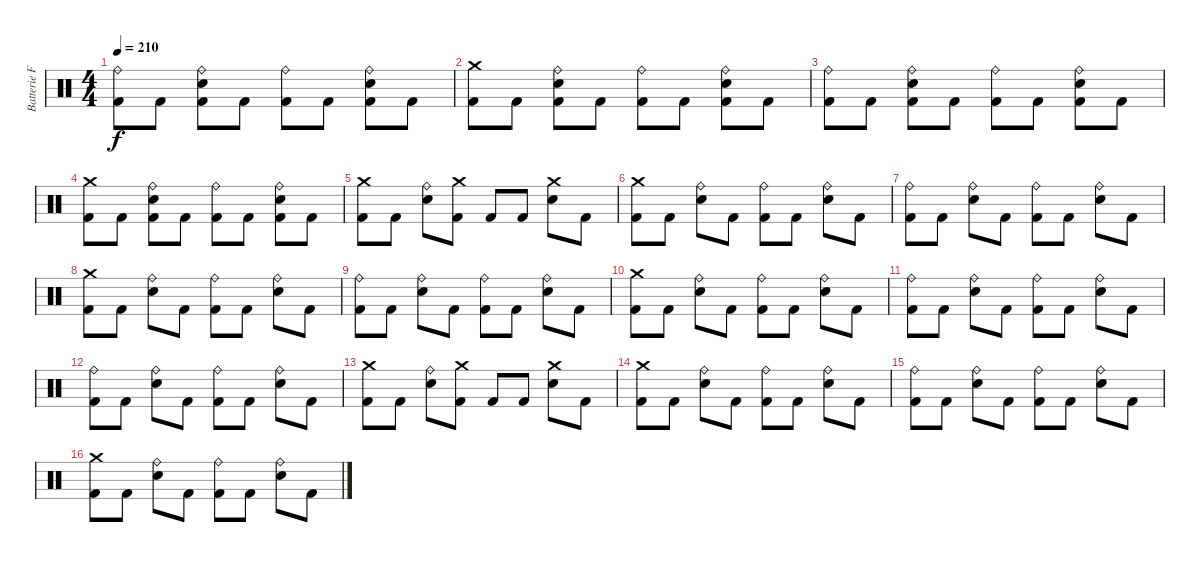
\track ("Batterie Franck" "Batterie F") {instrument percussion}
\staff {score}
\articulation defaults
\ts (4 4)
\tempo 210
\clef neutral
\ks c
("Ride (bell)" "Kick (hit) 2").8{dy f} "Kick (hit) 2".8 ("Ride (bell)" "Snare (hit) 2" "Kick (hit) 2").8 "Kick (hit) 2".8 ("Ride (bell)" "Kick (hit) 2").8 "Kick (hit) 2".8 ("Ride (bell)" "Snare (hit) 2" "Kick (hit) 2").8 "Kick (hit) 2".8 |
("Crash medium (hit)" "Kick (hit) 2").8 "Kick (hit) 2".8 ("Ride (bell)" "Snare (hit) 2" "Kick (hit) 2").8 "Kick (hit) 2".8 ("Ride (bell)" "Kick (hit) 2").8 "Kick (hit) 2".8 ("Ride (bell)" "Snare (hit) 2" "Kick (hit) 2").8 "Kick (hit) 2".8 |
("Ride (bell)" "Kick (hit) 2").8 "Kick (hit) 2".8 ("Ride (bell)" "Snare (hit) 2" "Kick (hit) 2").8 "Kick (hit) 2".8 ("Ride (bell)" "Kick (hit) 2").8 "Kick (hit) 2".8 ("Ride (bell)" "Snare (hit) 2" "Kick (hit) 2").8 "Kick (hit) 2".8 |
("Crash medium (hit)" "Kick (hit) 2").8 "Kick (hit) 2".8 ("Ride (bell)" "Snare (hit) 2" "Kick (hit) 2").8 "Kick (hit) 2".8 ("Ride (bell)" "Kick (hit) 2").8 "Kick (hit) 2".8 ("Ride (bell)" "Snare (hit) 2" "Kick (hit) 2").8 "Kick (hit) 2".8 |
("Crash medium (hit)" "Kick (hit) 2").8 "Kick (hit) 2".8 ("Ride (bell)" "Snare (hit) 2").8 ("Crash medium (hit)" "Kick (hit) 2").8 "Kick (hit) 2".8 "Kick (hit) 2".8 ("Crash medium (hit)" "Snare (hit) 2").8 "Kick (hit) 2".8 |
("Crash medium (hit)" "Kick (hit) 2").8 "Kick (hit) 2".8 ("Ride (bell)" "Snare (hit) 2").8 "Kick (hit) 2".8 ("Ride (bell)" "Kick (hit) 2").8 "Kick (hit) 2".8 ("Ride (bell)" "Snare (hit) 2").8 "Kick (hit) 2".8 |
("Ride (bell)" "Kick (hit) 2").8 "Kick (hit) 2".8 ("Ride (bell)" "Snare (hit) 2").8 "Kick (hit) 2".8 ("Ride (bell)" "Kick (hit) 2").8 "Kick (hit) 2".8 ("Ride (bell)" "Snare (hit) 2").8 "Kick (hit) 2".8 |
("Crash medium (hit)" "Kick (hit) 2").8 "Kick (hit) 2".8 ("Ride (bell)" "Snare (hit) 2").8 "Kick (hit) 2".8 ("Ride (bell)" "Kick (hit) 2").8 "Kick (hit) 2".8 ("Ride (bell)" "Snare (hit) 2").8 "Kick (hit) 2".8 |
("Ride (bell)" "Kick (hit) 2").8 "Kick (hit) 2".8 ("Ride (bell)" "Snare (hit) 2").8 "Kick (hit) 2".8 ("Ride (bell)" "Kick (hit) 2").8 "Kick (hit) 2".8 ("Ride (bell)" "Snare (hit) 2").8 "Kick (hit) 2".8 |
("Crash medium (hit)" "Kick (hit) 2").8 "Kick (hit) 2".8 ("Ride (bell)" "Snare (hit) 2").8 "Kick (hit) 2".8 ("Ride (bell)" "Kick (hit) 2").8 "Kick (hit) 2".8 ("Ride (bell)" "Snare (hit) 2").8 "Kick (hit) 2".8 |
("Ride (bell)" "Kick (hit) 2").8 "Kick (hit) 2".8 ("Ride (bell)" "Snare (hit) 2").8 "Kick (hit) 2".8 ("Ride (bell)" "Kick (hit) 2").8 "Kick (hit) 2".8 ("Ride (bell)" "Snare (hit) 2").8 "Kick (hit) 2".8 |
("Ride (bell)" "Kick (hit) 2").8 "Kick (hit) 2".8 ("Ride (bell)" "Snare (hit) 2").8 "Kick (hit) 2".8 ("Ride (bell)" "Kick (hit) 2").8 "Kick (hit) 2".8 ("Ride (bell)" "Snare (hit) 2").8 "Kick (hit) 2".8 |
("Crash medium (hit)" "Kick (hit) 2").8 "Kick (hit) 2".8 ("Ride (bell)" "Snare (hit) 2").8 ("Crash medium (hit)" "Kick (hit) 2").8 "Kick (hit) 2".8 "Kick (hit) 2".8 ("Crash medium (hit)" "Snare (hit) 2").8 "Kick (hit) 2".8 |
("Crash medium (hit)" "Kick (hit) 2").8 "Kick (hit) 2".8 ("Ride (bell)" "Snare (hit) 2").8 "Kick (hit) 2".8 ("Ride (bell)" "Kick (hit) 2").8 "Kick (hit) 2".8 ("Ride (bell)" "Snare (hit) 2").8 "Kick (hit) 2".8 |
("Ride (bell)" "Kick (hit) 2").8 "Kick (hit) 2".8 ("Ride (bell)" "Snare (hit) 2").8 "Kick (hit) 2".8 ("Ride (bell)" "Kick (hit) 2").8 "Kick (hit) 2".8 ("Ride (bell)" "Snare (hit) 2").8 "Kick (hit) 2".8 |
("Crash medium (hit)" "Kick (hit) 2").8 "Kick (hit) 2".8 ("Ride (bell)" "Snare (hit) 2").8 "Kick (hit) 2".8 ("Ride (bell)" "Kick (hit) 2").8 "Kick (hit) 2".8 ("Ride (bell)" "Snare (hit) 2").8 "Kick (hit) 2".8
